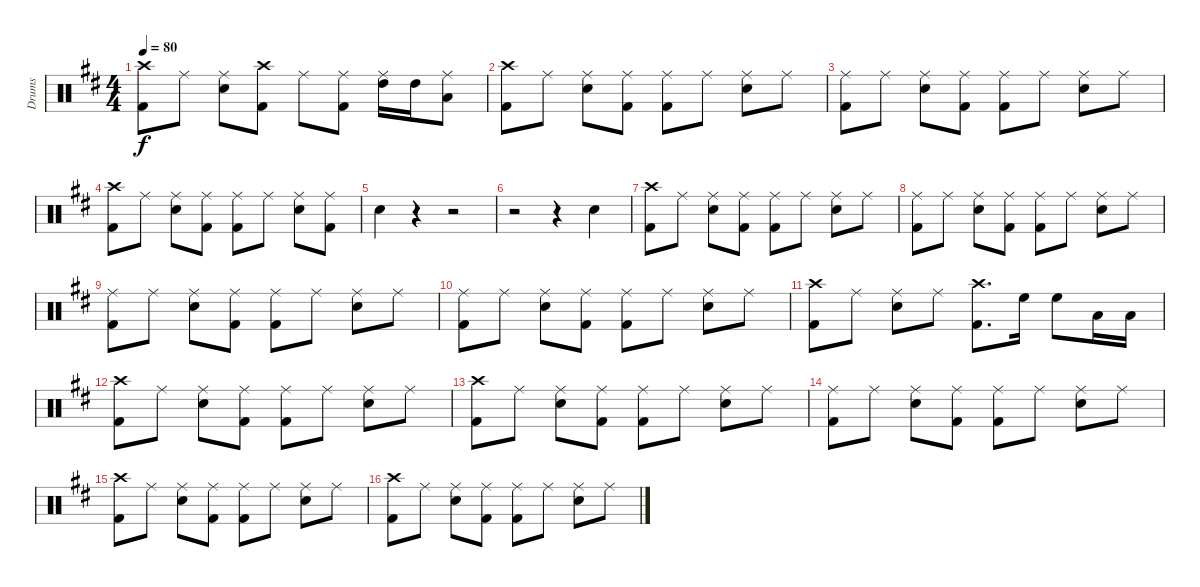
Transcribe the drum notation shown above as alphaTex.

\track ("Drums" "Drums") {instrument percussion}
\staff {score}
\articulation defaults
\ts (4 4)
\tempo 80
\clef neutral
\ks d
("Crash high (hit)" "Kick (hit) 2").8{dy f} "Ride (middle)".8 ("Ride (middle)" "Snare (hit) 2").8 ("Crash high (hit)" "Kick (hit) 2").8 "Ride (middle)".8 ("Ride (middle)" "Kick (hit) 2").8 ("Ride (middle)" "High Tom (hit)").16 "High Tom (hit)".16 ("Ride (middle)" "Low Tom (hit)").8 |
("Crash high (hit)" "Kick (hit) 2").8 "Ride (middle)".8 ("Ride (middle)" "Snare (hit) 2").8 ("Ride (middle)" "Kick (hit) 2").8 ("Ride (middle)" "Kick (hit) 2").8 "Ride (middle)".8 ("Ride (middle)" "Snare (hit) 2").8 "Ride (middle)".8 |
("Ride (middle)" "Kick (hit) 2").8 "Ride (middle)".8 ("Ride (middle)" "Snare (hit) 2").8 ("Ride (middle)" "Kick (hit) 2").8 ("Ride (middle)" "Kick (hit) 2").8 "Ride (middle)".8 ("Ride (middle)" "Snare (hit) 2").8 "Ride (middle)".8 |
("Crash high (hit)" "Kick (hit) 2").8 "Ride (middle)".8 ("Ride (middle)" "Snare (hit) 2").8 ("Ride (middle)" "Kick (hit) 2").8 ("Ride (middle)" "Kick (hit) 2").8 "Ride (middle)".8 ("Ride (middle)" "Snare (hit) 2").8 ("Ride (middle)" "Kick (hit) 2").8 |
"Snare (hit) 2".4 r.4 r.2 |
r.2 r.4 "Snare (hit) 2".4 |
("Crash high (hit)" "Kick (hit) 2").8 "Ride (middle)".8 ("Ride (middle)" "Snare (hit) 2").8 ("Ride (middle)" "Kick (hit) 2").8 ("Ride (middle)" "Kick (hit) 2").8 "Ride (middle)".8 ("Ride (middle)" "Snare (hit) 2").8 "Ride (middle)".8 |
("Ride (middle)" "Kick (hit) 2").8 "Ride (middle)".8 ("Ride (middle)" "Snare (hit) 2").8 ("Ride (middle)" "Kick (hit) 2").8 ("Ride (middle)" "Kick (hit) 2").8 "Ride (middle)".8 ("Ride (middle)" "Snare (hit) 2").8 "Ride (middle)".8 |
("Ride (middle)" "Kick (hit) 2").8 "Ride (middle)".8 ("Ride (middle)" "Snare (hit) 2").8 ("Ride (middle)" "Kick (hit) 2").8 ("Ride (middle)" "Kick (hit) 2").8 "Ride (middle)".8 ("Ride (middle)" "Snare (hit) 2").8 "Ride (middle)".8 |
("Ride (middle)" "Kick (hit) 2").8 "Ride (middle)".8 ("Ride (middle)" "Snare (hit) 2").8 ("Ride (middle)" "Kick (hit) 2").8 ("Ride (middle)" "Kick (hit) 2").8 "Ride (middle)".8 ("Ride (middle)" "Snare (hit) 2").8 "Ride (middle)".8 |
("Crash high (hit)" "Kick (hit) 2").8 "Ride (middle)".8 ("Ride (middle)" "Snare (hit) 2").8 "Ride (middle)".8 ("Crash high (hit)" "Kick (hit) 2").8{d} "High Floor Tom (hit)".16 "High Floor Tom (hit)".8 "Low Tom (hit)".16 "Low Tom (hit)".16 |
("Crash high (hit)" "Kick (hit) 2").8 "Ride (middle)".8 ("Ride (middle)" "Snare (hit) 2").8 ("Ride (middle)" "Kick (hit) 2").8 ("Ride (middle)" "Kick (hit) 2").8 "Ride (middle)".8 ("Ride (middle)" "Snare (hit) 2").8 "Ride (middle)".8 |
("Crash high (hit)" "Kick (hit) 2").8 "Ride (middle)".8 ("Ride (middle)" "Snare (hit) 2").8 ("Ride (middle)" "Kick (hit) 2").8 ("Ride (middle)" "Kick (hit) 2").8 "Ride (middle)".8 ("Ride (middle)" "Snare (hit) 2").8 "Ride (middle)".8 |
("Ride (middle)" "Kick (hit) 2").8 "Ride (middle)".8 ("Ride (middle)" "Snare (hit) 2").8 ("Ride (middle)" "Kick (hit) 2").8 ("Ride (middle)" "Kick (hit) 2").8 "Ride (middle)".8 ("Ride (middle)" "Snare (hit) 2").8 "Ride (middle)".8 |
("Crash high (hit)" "Kick (hit) 2").8 "Ride (middle)".8 ("Ride (middle)" "Snare (hit) 2").8 ("Ride (middle)" "Kick (hit) 2").8 ("Ride (middle)" "Kick (hit) 2").8 "Ride (middle)".8 ("Ride (middle)" "Snare (hit) 2").8 "Ride (middle)".8 |
("Crash high (hit)" "Kick (hit) 2").8 "Ride (middle)".8 ("Ride (middle)" "Snare (hit) 2").8 ("Ride (middle)" "Kick (hit) 2").8 ("Ride (middle)" "Kick (hit) 2").8 "Ride (middle)".8 ("Ride (middle)" "Snare (hit) 2").8 "Ride (middle)".8
